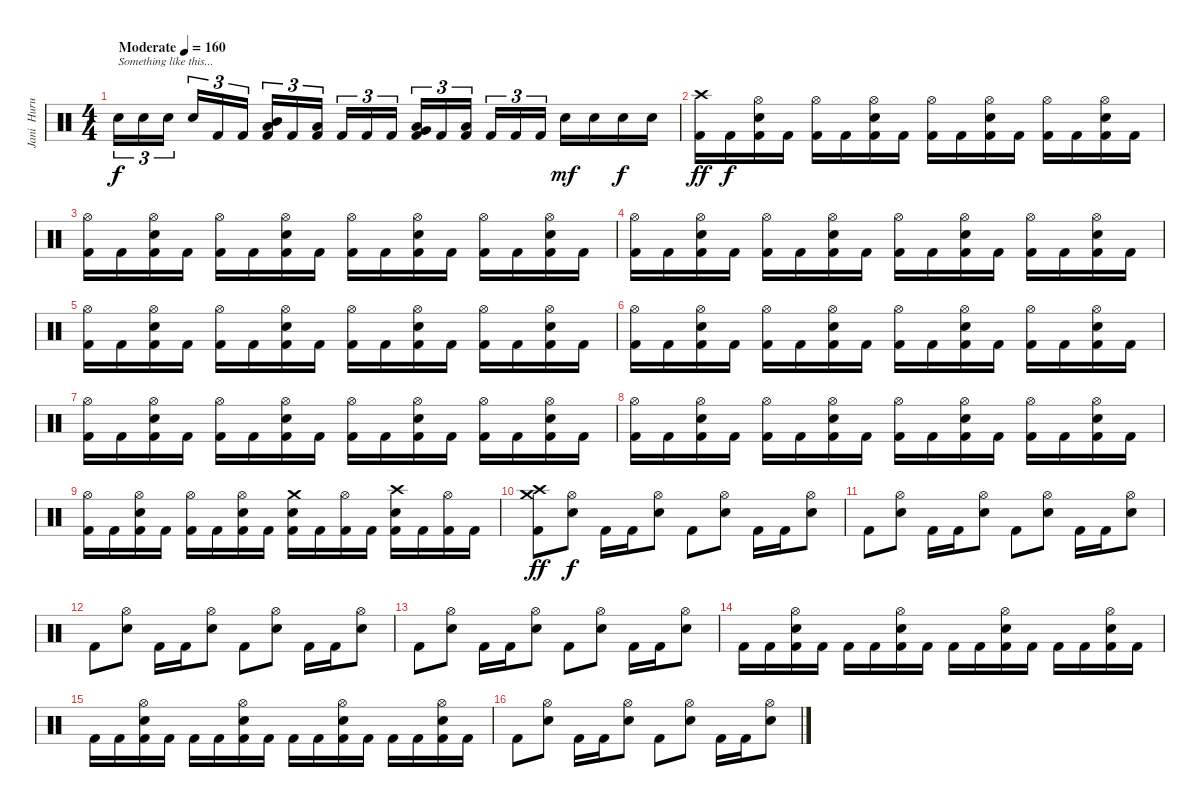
\track ("Jani  Hurula" "Jani  Huru") {instrument percussion}
\staff {score}
\articulation defaults
\ts (4 4)
\tempo (160 "Moderate")
\clef neutral
\ks c "Snare (hit) 2".16{tu (3 2) txt "Something like this..." dy f} "Snare (hit) 2".16{tu (3 2)} "Snare (hit) 2".16{tu (3 2) beam splitsecondary} "Snare (hit) 2".16{tu (3 2)} "Kick (hit) 2".16{tu (3 2)} "Kick (hit) 2".16{tu (3 2)}
("Low Floor Tom (hit)" "Mid Tom (hit)" "Kick (hit) 2").16{tu (3 2)} "Kick (hit) 2".16{tu (3 2)} ("Low Tom (hit)" "Kick (hit) 2").16{tu (3 2) beam splitsecondary} "Kick (hit) 2".16{tu (3 2)} "Kick (hit) 2".16{tu (3 2)} "Kick (hit) 2".16{tu (3 2)} ("Very Low Tom (hit)" "Low Tom (hit)" "Kick (hit) 2").16{tu (3 2)} "Kick (hit) 2".16{tu (3 2)} ("Low Floor Tom (hit)" "Kick (hit) 2").16{tu (3 2) beam splitsecondary} "Kick (hit) 2".16{tu (3 2)} "Kick (hit) 2".16{tu (3 2)} "Kick (hit) 2".16{tu (3 2)} "Snare (hit) 2".16{dy mf} "Snare (hit) 2".16 "Snare (hit) 2".16{dy f} "Snare (hit) 2".16 |
("Crash high (hit)" "Kick (hit) 2").16{dy ff} "Kick (hit) 2".16{dy f} ("Hi-Hat (open)" "Snare (hit) 2" "Kick (hit) 2").16 "Kick (hit) 2".16 ("Hi-Hat (open)" "Kick (hit) 2").16 "Kick (hit) 2".16 ("Hi-Hat (open)" "Snare (hit) 2" "Kick (hit) 2").16 "Kick (hit) 2".16 ("Hi-Hat (open)" "Kick (hit) 2").16 "Kick (hit) 2".16 ("Hi-Hat (open)" "Snare (hit) 2" "Kick (hit) 2").16 "Kick (hit) 2".16 ("Hi-Hat (open)" "Kick (hit) 2").16 "Kick (hit) 2".16 ("Hi-Hat (open)" "Snare (hit) 2" "Kick (hit) 2").16 "Kick (hit) 2".16 |
("Hi-Hat (open)" "Kick (hit) 2").16 "Kick (hit) 2".16 ("Hi-Hat (open)" "Snare (hit) 2" "Kick (hit) 2").16 "Kick (hit) 2".16 ("Hi-Hat (open)" "Kick (hit) 2").16 "Kick (hit) 2".16 ("Hi-Hat (open)" "Snare (hit) 2" "Kick (hit) 2").16 "Kick (hit) 2".16 ("Hi-Hat (open)" "Kick (hit) 2").16 "Kick (hit) 2".16 ("Hi-Hat (open)" "Snare (hit) 2" "Kick (hit) 2").16 "Kick (hit) 2".16 ("Hi-Hat (open)" "Kick (hit) 2").16 "Kick (hit) 2".16 ("Hi-Hat (open)" "Snare (hit) 2" "Kick (hit) 2").16 "Kick (hit) 2".16 |
("Hi-Hat (open)" "Kick (hit) 2").16 "Kick (hit) 2".16 ("Hi-Hat (open)" "Snare (hit) 2" "Kick (hit) 2").16 "Kick (hit) 2".16 ("Hi-Hat (open)" "Kick (hit) 2").16 "Kick (hit) 2".16 ("Hi-Hat (open)" "Snare (hit) 2" "Kick (hit) 2").16 "Kick (hit) 2".16 ("Hi-Hat (open)" "Kick (hit) 2").16 "Kick (hit) 2".16 ("Hi-Hat (open)" "Snare (hit) 2" "Kick (hit) 2").16 "Kick (hit) 2".16 ("Hi-Hat (open)" "Kick (hit) 2").16 "Kick (hit) 2".16 ("Hi-Hat (open)" "Snare (hit) 2" "Kick (hit) 2").16 "Kick (hit) 2".16 |
("Hi-Hat (open)" "Kick (hit) 2").16 "Kick (hit) 2".16 ("Hi-Hat (open)" "Snare (hit) 2" "Kick (hit) 2").16 "Kick (hit) 2".16 ("Hi-Hat (open)" "Kick (hit) 2").16 "Kick (hit) 2".16 ("Hi-Hat (open)" "Snare (hit) 2" "Kick (hit) 2").16 "Kick (hit) 2".16 ("Hi-Hat (open)" "Kick (hit) 2").16 "Kick (hit) 2".16 ("Hi-Hat (open)" "Snare (hit) 2" "Kick (hit) 2").16 "Kick (hit) 2".16 ("Hi-Hat (open)" "Kick (hit) 2").16 "Kick (hit) 2".16 ("Hi-Hat (open)" "Snare (hit) 2" "Kick (hit) 2").16 "Kick (hit) 2".16 |
("Hi-Hat (open)" "Kick (hit) 2").16 "Kick (hit) 2".16 ("Hi-Hat (open)" "Snare (hit) 2" "Kick (hit) 2").16 "Kick (hit) 2".16 ("Hi-Hat (open)" "Kick (hit) 2").16 "Kick (hit) 2".16 ("Hi-Hat (open)" "Snare (hit) 2" "Kick (hit) 2").16 "Kick (hit) 2".16 ("Hi-Hat (open)" "Kick (hit) 2").16 "Kick (hit) 2".16 ("Hi-Hat (open)" "Snare (hit) 2" "Kick (hit) 2").16 "Kick (hit) 2".16 ("Hi-Hat (open)" "Kick (hit) 2").16 "Kick (hit) 2".16 ("Hi-Hat (open)" "Snare (hit) 2" "Kick (hit) 2").16 "Kick (hit) 2".16 |
("Hi-Hat (open)" "Kick (hit) 2").16 "Kick (hit) 2".16 ("Hi-Hat (open)" "Snare (hit) 2" "Kick (hit) 2").16 "Kick (hit) 2".16 ("Hi-Hat (open)" "Kick (hit) 2").16 "Kick (hit) 2".16 ("Hi-Hat (open)" "Snare (hit) 2" "Kick (hit) 2").16 "Kick (hit) 2".16 ("Hi-Hat (open)" "Kick (hit) 2").16 "Kick (hit) 2".16 ("Hi-Hat (open)" "Snare (hit) 2" "Kick (hit) 2").16 "Kick (hit) 2".16 ("Hi-Hat (open)" "Kick (hit) 2").16 "Kick (hit) 2".16 ("Hi-Hat (open)" "Snare (hit) 2" "Kick (hit) 2").16 "Kick (hit) 2".16 |
("Hi-Hat (open)" "Kick (hit) 2").16 "Kick (hit) 2".16 ("Hi-Hat (open)" "Snare (hit) 2" "Kick (hit) 2").16 "Kick (hit) 2".16 ("Hi-Hat (open)" "Kick (hit) 2").16 "Kick (hit) 2".16 ("Hi-Hat (open)" "Snare (hit) 2" "Kick (hit) 2").16 "Kick (hit) 2".16 ("Hi-Hat (open)" "Kick (hit) 2").16 "Kick (hit) 2".16 ("Hi-Hat (open)" "Snare (hit) 2" "Kick (hit) 2").16 "Kick (hit) 2".16 ("Hi-Hat (open)" "Kick (hit) 2").16 "Kick (hit) 2".16 ("Hi-Hat (open)" "Snare (hit) 2" "Kick (hit) 2").16 "Kick (hit) 2".16 |
("Hi-Hat (open)" "Kick (hit) 2").16 "Kick (hit) 2".16 ("Hi-Hat (open)" "Snare (hit) 2" "Kick (hit) 2").16 "Kick (hit) 2".16 ("Hi-Hat (open)" "Kick (hit) 2").16 "Kick (hit) 2".16 ("Hi-Hat (open)" "Snare (hit) 2" "Kick (hit) 2").16 "Kick (hit) 2".16 ("Crash medium (hit)" "Snare (hit) 2" "Kick (hit) 2").16 "Kick (hit) 2".16 ("Hi-Hat (open)" "Kick (hit) 2").16 "Kick (hit) 2".16 ("Crash high (hit)" "Snare (hit) 2" "Kick (hit) 2").16 "Kick (hit) 2".16 ("Hi-Hat (open)" "Kick (hit) 2").16 "Kick (hit) 2".16 |
("Crash high (hit)" "Crash medium (hit)" "Kick (hit) 2").8{dy ff} ("Hi-Hat (open)" "Snare (hit) 2").8{dy f} "Kick (hit) 2".16 "Kick (hit) 2".16 ("Hi-Hat (open)" "Snare (hit) 2").8 "Kick (hit) 2".8 ("Hi-Hat (open)" "Snare (hit) 2").8 "Kick (hit) 2".16 "Kick (hit) 2".16 ("Hi-Hat (open)" "Snare (hit) 2").8 |
"Kick (hit) 2".8 ("Hi-Hat (open)" "Snare (hit) 2").8 "Kick (hit) 2".16 "Kick (hit) 2".16 ("Hi-Hat (open)" "Snare (hit) 2").8 "Kick (hit) 2".8 ("Hi-Hat (open)" "Snare (hit) 2").8 "Kick (hit) 2".16 "Kick (hit) 2".16 ("Hi-Hat (open)" "Snare (hit) 2").8 |
"Kick (hit) 2".8 ("Hi-Hat (open)" "Snare (hit) 2").8 "Kick (hit) 2".16 "Kick (hit) 2".16 ("Hi-Hat (open)" "Snare (hit) 2").8 "Kick (hit) 2".8 ("Hi-Hat (open)" "Snare (hit) 2").8 "Kick (hit) 2".16 "Kick (hit) 2".16 ("Hi-Hat (open)" "Snare (hit) 2").8 |
"Kick (hit) 2".8 ("Hi-Hat (open)" "Snare (hit) 2").8 "Kick (hit) 2".16 "Kick (hit) 2".16 ("Hi-Hat (open)" "Snare (hit) 2").8 "Kick (hit) 2".8 ("Hi-Hat (open)" "Snare (hit) 2").8 "Kick (hit) 2".16 "Kick (hit) 2".16 ("Hi-Hat (open)" "Snare (hit) 2").8 |
"Kick (hit) 2".16 "Kick (hit) 2".16 ("Hi-Hat (open)" "Snare (hit) 2" "Kick (hit) 2").16 "Kick (hit) 2".16 "Kick (hit) 2".16 "Kick (hit) 2".16 ("Hi-Hat (open)" "Snare (hit) 2" "Kick (hit) 2").16 "Kick (hit) 2".16 "Kick (hit) 2".16 "Kick (hit) 2".16 ("Hi-Hat (open)" "Snare (hit) 2" "Kick (hit) 2").16 "Kick (hit) 2".16 "Kick (hit) 2".16 "Kick (hit) 2".16 ("Hi-Hat (open)" "Snare (hit) 2" "Kick (hit) 2").16 "Kick (hit) 2".16 |
"Kick (hit) 2".16 "Kick (hit) 2".16 ("Hi-Hat (open)" "Snare (hit) 2" "Kick (hit) 2").16 "Kick (hit) 2".16 "Kick (hit) 2".16 "Kick (hit) 2".16 ("Hi-Hat (open)" "Snare (hit) 2" "Kick (hit) 2").16 "Kick (hit) 2".16 "Kick (hit) 2".16 "Kick (hit) 2".16 ("Hi-Hat (open)" "Snare (hit) 2" "Kick (hit) 2").16 "Kick (hit) 2".16 "Kick (hit) 2".16 "Kick (hit) 2".16 ("Hi-Hat (open)" "Snare (hit) 2" "Kick (hit) 2").16 "Kick (hit) 2".16 |
"Kick (hit) 2".8 ("Hi-Hat (open)" "Snare (hit) 2").8 "Kick (hit) 2".16 "Kick (hit) 2".16 ("Hi-Hat (open)" "Snare (hit) 2").8 "Kick (hit) 2".8 ("Hi-Hat (open)" "Snare (hit) 2").8 "Kick (hit) 2".16 "Kick (hit) 2".16 ("Hi-Hat (open)" "Snare (hit) 2").8
